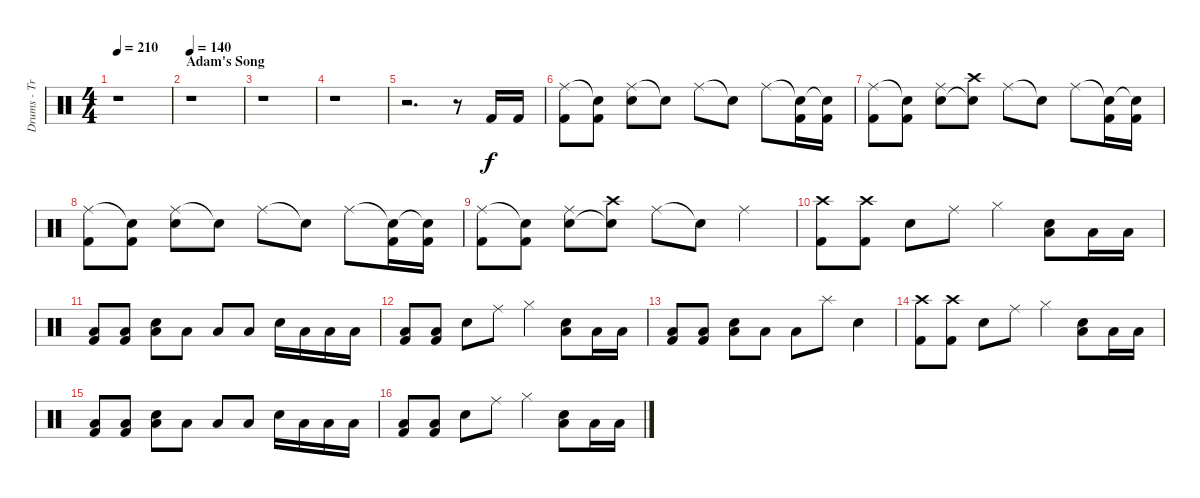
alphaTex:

\track ("Drums - Travis Barker" "Drums - Tr") {instrument percussion}
\staff {score}
\articulation defaults
\ts (4 4)
\tempo 210
\clef neutral
\ks c
r.1{dy f} |
\section ("" "Adam's Song")
\tempo 140
r.1 |
r.1 |
r.1 |
r.2{d} r.8 "Kick (hit) 2".16 "Kick (hit) 2".16 |
("Ride (middle)" "Kick (hit) 2").8 ("Snare (hit)"{t} "Kick (hit) 2").8 ("Ride (middle)" "Snare (hit) 2").8 "Snare (hit)"{t}.8 "Ride (middle)".8 "Snare (hit)"{t}.8 "Ride (middle)".8 ("Snare (hit)"{t} "Kick (hit) 2").16 ("Snare (hit)"{t} "Kick (hit) 2").16 |
("Ride (middle)" "Kick (hit) 2").8 ("Snare (hit)"{t} "Kick (hit) 2").8 ("Ride (middle)" "Snare (hit) 2").8 ("Crash high (hit)" "Snare (hit)"{t}).8 "Ride (middle)".8 "Snare (hit)"{t}.8 "Ride (middle)".8 ("Snare (hit)"{t} "Kick (hit) 2").16 ("Snare (hit)"{t} "Kick (hit) 2").16 |
("Ride (middle)" "Kick (hit) 2").8 ("Snare (hit)"{t} "Kick (hit) 2").8 ("Ride (middle)" "Snare (hit) 2").8 "Snare (hit)"{t}.8 "Ride (middle)".8 "Snare (hit)"{t}.8 "Ride (middle)".8 ("Snare (hit)"{t} "Kick (hit) 2").16 ("Snare (hit)"{t} "Kick (hit) 2").16 |
("Ride (middle)" "Kick (hit) 2").8 ("Snare (hit)"{t} "Kick (hit) 2").8 ("Ride (middle)" "Snare (hit) 2").8 ("Crash high (hit)" "Snare (hit)"{t}).8 "Ride (middle)".8 "Snare (hit)"{t}.8 "Ride (middle)".4 |
("Crash high (hit)" "Kick (hit) 2").8 ("Crash high (hit)" "Kick (hit) 2").8 "Snare (hit) 2".8 "Ride (middle)".8 "Hi-Hat (closed)".4 ("Low Floor Tom (hit)" "Snare (hit) 2").8 "Low Floor Tom (hit)".16 "Low Floor Tom (hit)".16 |
("Low Floor Tom (hit)" "Kick (hit) 2").8 ("Low Floor Tom (hit)" "Kick (hit) 2").8 ("Low Floor Tom (hit)" "Snare (hit) 2").8 "Low Floor Tom (hit)".8 "Low Floor Tom (hit)".8 "Low Floor Tom (hit)".8 "Snare (hit) 2".16 "Low Tom (hit)".16 "Low Floor Tom (hit)".16 "Low Floor Tom (hit)".16 |
("Low Floor Tom (hit)" "Kick (hit) 2").8 ("Low Floor Tom (hit)" "Kick (hit) 2").8 "Snare (hit) 2".8 "Ride (middle)".8 "Hi-Hat (closed)".4 ("Low Floor Tom (hit)" "Snare (hit) 2").8 "Low Floor Tom (hit)".16 "Low Floor Tom (hit)".16 |
("Low Floor Tom (hit)" "Kick (hit) 2").8 ("Low Floor Tom (hit)" "Kick (hit) 2").8 ("Low Floor Tom (hit)" "Snare (hit) 2").8 "Low Floor Tom (hit)".8 "Low Floor Tom (hit)".8 "Splash (hit)".8 "Snare (hit) 2".4 |
("Crash high (hit)" "Kick (hit) 2").8 ("Crash high (hit)" "Kick (hit) 2").8 "Snare (hit) 2".8 "Ride (middle)".8 "Hi-Hat (closed)".4 ("Low Floor Tom (hit)" "Snare (hit) 2").8 "Low Floor Tom (hit)".16 "Low Floor Tom (hit)".16 |
("Low Floor Tom (hit)" "Kick (hit) 2").8 ("Low Floor Tom (hit)" "Kick (hit) 2").8 ("Low Floor Tom (hit)" "Snare (hit) 2").8 "Low Floor Tom (hit)".8 "Low Floor Tom (hit)".8 "Low Floor Tom (hit)".8 "Snare (hit) 2".16 "Low Tom (hit)".16 "Low Floor Tom (hit)".16 "Low Floor Tom (hit)".16 |
("Low Floor Tom (hit)" "Kick (hit) 2").8 ("Low Floor Tom (hit)" "Kick (hit) 2").8 "Snare (hit) 2".8 "Ride (middle)".8 "Hi-Hat (closed)".4 ("Low Floor Tom (hit)" "Snare (hit) 2").8 "Low Floor Tom (hit)".16 "Low Floor Tom (hit)".16
